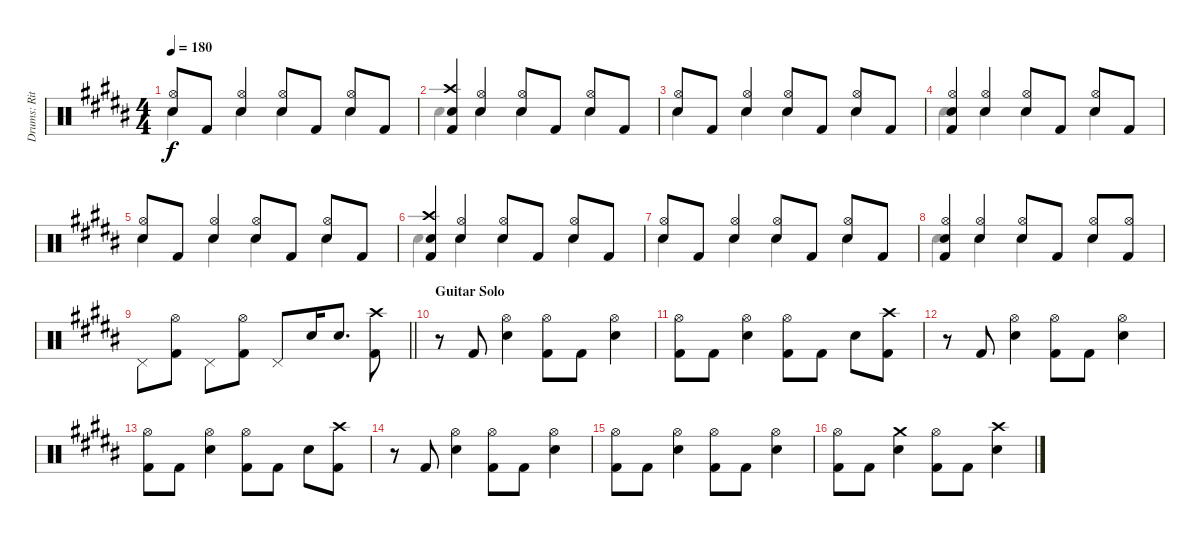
\track ("Drums: Ritsu " "Drums: Rit") {instrument percussion}
\staff {score}
\articulation defaults
\voice
\ts (4 4)
\tempo 180
\clef neutral
\ks b
("Hi-Hat (open)" "Electric Snare (hit)").8{dy f} "Kick (hit) 2".8 ("Hi-Hat (open)" "Electric Snare (hit)").4 ("Hi-Hat (open)" "Electric Snare (hit)").8 "Kick (hit) 2".8 ("Hi-Hat (open)" "Electric Snare (hit)").8 "Kick (hit) 2".8 |
("Crash high (hit)" "Electric Snare (hit)" "Kick (hit) 2").4 ("Hi-Hat (open)" "Electric Snare (hit)").4 ("Hi-Hat (open)" "Electric Snare (hit)").8 "Kick (hit) 2".8 ("Hi-Hat (open)" "Electric Snare (hit)").8 "Kick (hit) 2".8 |
("Hi-Hat (open)" "Electric Snare (hit)").8 "Kick (hit) 2".8 ("Hi-Hat (open)" "Electric Snare (hit)").4 ("Hi-Hat (open)" "Electric Snare (hit)").8 "Kick (hit) 2".8 ("Hi-Hat (open)" "Electric Snare (hit)").8 "Kick (hit) 2".8 |
("Hi-Hat (open)" "Electric Snare (hit)" "Kick (hit) 2").4 ("Hi-Hat (open)" "Electric Snare (hit)").4 ("Hi-Hat (open)" "Electric Snare (hit)").8 "Kick (hit) 2".8 ("Hi-Hat (open)" "Electric Snare (hit)").8 "Kick (hit) 2".8 |
("Hi-Hat (open)" "Electric Snare (hit)").8 "Kick (hit) 2".8 ("Hi-Hat (open)" "Electric Snare (hit)").4 ("Hi-Hat (open)" "Electric Snare (hit)").8 "Kick (hit) 2".8 ("Hi-Hat (open)" "Electric Snare (hit)").8 "Kick (hit) 2".8 |
("Crash high (hit)" "Electric Snare (hit)" "Kick (hit) 2").4 ("Hi-Hat (open)" "Electric Snare (hit)").4 ("Hi-Hat (open)" "Electric Snare (hit)").8 "Kick (hit) 2".8 ("Hi-Hat (open)" "Electric Snare (hit)").8 "Kick (hit) 2".8 |
("Hi-Hat (open)" "Electric Snare (hit)").8 "Kick (hit) 2".8 ("Hi-Hat (open)" "Electric Snare (hit)").4 ("Hi-Hat (open)" "Electric Snare (hit)").8 "Kick (hit) 2".8 ("Hi-Hat (open)" "Electric Snare (hit)").8 "Kick (hit) 2".8 |
("Hi-Hat (open)" "Electric Snare (hit)" "Kick (hit) 2").4 ("Hi-Hat (open)" "Electric Snare (hit)").4 ("Hi-Hat (open)" "Electric Snare (hit)").8 "Kick (hit) 2".8 ("Hi-Hat (open)" "Electric Snare (hit)").8 ("Hi-Hat (open)" "Kick (hit) 2").8 |
\barLineRight lightlight "Pedal Hi-Hat (hit)".8
("Hi-Hat (open)" "Kick (hit) 2").8 "Pedal Hi-Hat (hit)".8 ("Hi-Hat (open)" "Kick (hit) 2").8 "Pedal Hi-Hat (hit)".8 "Electric Snare (hit)".16 "Electric Snare (hit)".8{d} ("Crash high (hit)" "Kick (hit) 2").8 |
\section ("" "Guitar Solo")
r.8 "Kick (hit) 2".8 ("Hi-Hat (open)" "Electric Snare (hit)").4 ("Hi-Hat (open)" "Kick (hit) 2").8 "Kick (hit) 2".8 ("Hi-Hat (open)" "Electric Snare (hit)").4 |
("Hi-Hat (open)" "Kick (hit) 2").8 "Kick (hit) 2".8 ("Hi-Hat (open)" "Electric Snare (hit)").4 ("Hi-Hat (open)" "Kick (hit) 2").8 "Kick (hit) 2".8 "Electric Snare (hit)".8 ("Crash high (hit)" "Kick (hit) 2").8 |
r.8 "Kick (hit) 2".8 ("Hi-Hat (open)" "Electric Snare (hit)").4 ("Hi-Hat (open)" "Kick (hit) 2").8 "Kick (hit) 2".8 ("Hi-Hat (open)" "Electric Snare (hit)").4 |
("Hi-Hat (open)" "Kick (hit) 2").8 "Kick (hit) 2".8 ("Hi-Hat (open)" "Electric Snare (hit)").4 ("Hi-Hat (open)" "Kick (hit) 2").8 "Kick (hit) 2".8 "Electric Snare (hit)".8 ("Crash high (hit)" "Kick (hit) 2").8 |
r.8 "Kick (hit) 2".8 ("Hi-Hat (open)" "Electric Snare (hit)").4 ("Hi-Hat (open)" "Kick (hit) 2").8 "Kick (hit) 2".8 ("Hi-Hat (open)" "Electric Snare (hit)").4 |
("Hi-Hat (open)" "Kick (hit) 2").8 "Kick (hit) 2".8 ("Hi-Hat (open)" "Electric Snare (hit)").4 ("Hi-Hat (open)" "Kick (hit) 2").8 "Kick (hit) 2".8 ("Hi-Hat (open)" "Electric Snare (hit)").4 |
("Hi-Hat (open)" "Kick (hit) 2").8 "Kick (hit) 2".8 ("Crash medium (hit)" "Electric Snare (hit)").4 ("Hi-Hat (open)" "Kick (hit) 2").8 "Kick (hit) 2".8 ("Crash high (hit)" "Electric Snare (hit)").4
\voice
\clef neutral
\ottava regular
\simile none
\ks b "Hand Clap (hit)".4{dy f} "Hand Clap (hit)".4 "Hand Clap (hit)".4 "Hand Clap (hit)".4
|
"Hand Clap (hit)".4 "Hand Clap (hit)".4 "Hand Clap (hit)".4 "Hand Clap (hit)".4 |
"Hand Clap (hit)".4 "Hand Clap (hit)".4 "Hand Clap (hit)".4 "Hand Clap (hit)".4 |
"Hand Clap (hit)".4 "Hand Clap (hit)".4 "Hand Clap (hit)".4 "Hand Clap (hit)".4 |
"Hand Clap (hit)".4 "Hand Clap (hit)".4 "Hand Clap (hit)".4 "Hand Clap (hit)".4 |
"Hand Clap (hit)".4 "Hand Clap (hit)".4 "Hand Clap (hit)".4 "Hand Clap (hit)".4 |
"Hand Clap (hit)".4 "Hand Clap (hit)".4 "Hand Clap (hit)".4 "Hand Clap (hit)".4 |
"Hand Clap (hit)".4 "Hand Clap (hit)".4 "Hand Clap (hit)".4 "Hand Clap (hit)".4 |
\barLineRight lightlight
|
|
|
|
|
|
|
